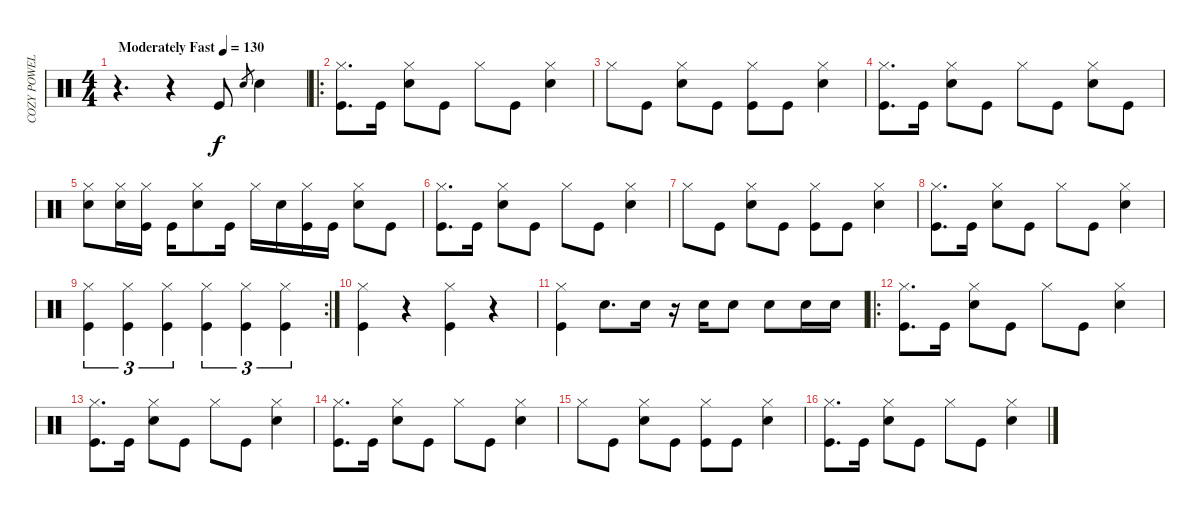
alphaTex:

\track ("COZY POWELL" "COZY POWEL") {instrument percussion}
\staff {score}
\articulation defaults
\ts (4 4)
\tempo (130 "Moderately Fast")
\clef neutral
\ks c
r.4{d dy f} r.4 "Kick (hit)".8 "Snare (hit) 2"{h}.8{gr} "Snare (hit) 2".4 |
\ro
("Hi-Hat (closed)" "Kick (hit)").8{d} "Kick (hit)".16 ("Hi-Hat (closed)" "Snare (hit) 2").8 "Kick (hit)".8 "Hi-Hat (closed)".8 "Kick (hit)".8 ("Hi-Hat (closed)" "Snare (hit) 2").4 |
"Hi-Hat (closed)".8 "Kick (hit)".8 ("Hi-Hat (closed)" "Snare (hit) 2").8 "Kick (hit)".8 ("Hi-Hat (closed)" "Kick (hit)").8 "Kick (hit)".8 ("Hi-Hat (closed)" "Snare (hit) 2").4 |
("Hi-Hat (closed)" "Kick (hit)").8{d} "Kick (hit)".16 ("Hi-Hat (closed)" "Snare (hit) 2").8 "Kick (hit)".8 "Hi-Hat (closed)".8 "Kick (hit)".8 ("Hi-Hat (closed)" "Snare (hit) 2").8 "Kick (hit)".8 |
("Hi-Hat (closed)" "Snare (hit) 2").8 ("Hi-Hat (closed)" "Snare (hit) 2").16 ("Hi-Hat (closed)" "Kick (hit)").16 "Kick (hit)".16 ("Hi-Hat (closed)" "Snare (hit) 2").8 "Kick (hit)".16 "Hi-Hat (closed)".16 "Snare (hit) 2".16 ("Hi-Hat (closed)" "Kick (hit)").16 "Kick (hit)".16 ("Hi-Hat (closed)" "Snare (hit) 2").8 "Kick (hit)".8 |
("Hi-Hat (closed)" "Kick (hit)").8{d} "Kick (hit)".16 ("Hi-Hat (closed)" "Snare (hit) 2").8 "Kick (hit)".8 "Hi-Hat (closed)".8 "Kick (hit)".8 ("Hi-Hat (closed)" "Snare (hit) 2").4 |
"Hi-Hat (closed)".8 "Kick (hit)".8 ("Hi-Hat (closed)" "Snare (hit) 2").8 "Kick (hit)".8 ("Hi-Hat (closed)" "Kick (hit)").8 "Kick (hit)".8 ("Hi-Hat (closed)" "Snare (hit) 2").4 |
("Hi-Hat (closed)" "Kick (hit)").8{d} "Kick (hit)".16 ("Hi-Hat (closed)" "Snare (hit) 2").8 "Kick (hit)".8 "Hi-Hat (closed)".8 "Kick (hit)".8 ("Hi-Hat (closed)" "Snare (hit) 2").4 |
\rc 2
("Hi-Hat (closed)" "Kick (hit)").4{tu (3 2)} ("Hi-Hat (closed)" "Kick (hit)").4{tu (3 2)} ("Hi-Hat (closed)" "Kick (hit)").4{tu (3 2)} ("Hi-Hat (closed)" "Kick (hit)").4{tu (3 2)} ("Hi-Hat (closed)" "Kick (hit)").4{tu (3 2)} ("Hi-Hat (closed)" "Kick (hit)").4{tu (3 2)} |
("Hi-Hat (closed)" "Kick (hit)").4 r.4 ("Hi-Hat (closed)" "Kick (hit)").4 r.4 |
("Hi-Hat (closed)" "Kick (hit)").4 "Snare (hit) 2".8{d} "Snare (hit) 2".16 r.16 "Snare (hit) 2".16 "Snare (hit) 2".8 "Snare (hit) 2".8 "Snare (hit) 2".16 "Snare (hit) 2".16 |
\ro
("Hi-Hat (closed)" "Kick (hit)").8{d} "Kick (hit)".16 ("Hi-Hat (closed)" "Snare (hit) 2").8 "Kick (hit)".8 "Hi-Hat (closed)".8 "Kick (hit)".8 ("Hi-Hat (closed)" "Snare (hit) 2").4 |
("Hi-Hat (closed)" "Kick (hit)").8{d} "Kick (hit)".16 ("Hi-Hat (closed)" "Snare (hit) 2").8 "Kick (hit)".8 "Hi-Hat (closed)".8 "Kick (hit)".8 ("Hi-Hat (closed)" "Snare (hit) 2").4 |
("Hi-Hat (closed)" "Kick (hit)").8{d} "Kick (hit)".16 ("Hi-Hat (closed)" "Snare (hit) 2").8 "Kick (hit)".8 "Hi-Hat (closed)".8 "Kick (hit)".8 ("Hi-Hat (closed)" "Snare (hit) 2").4 |
"Hi-Hat (closed)".8 "Kick (hit)".8 ("Hi-Hat (closed)" "Snare (hit) 2").8 "Kick (hit)".8 ("Hi-Hat (closed)" "Kick (hit)").8 "Kick (hit)".8 ("Hi-Hat (closed)" "Snare (hit) 2").4 |
("Hi-Hat (closed)" "Kick (hit)").8{d} "Kick (hit)".16 ("Hi-Hat (closed)" "Snare (hit) 2").8 "Kick (hit)".8 "Hi-Hat (closed)".8 "Kick (hit)".8 ("Hi-Hat (closed)" "Snare (hit) 2").4
